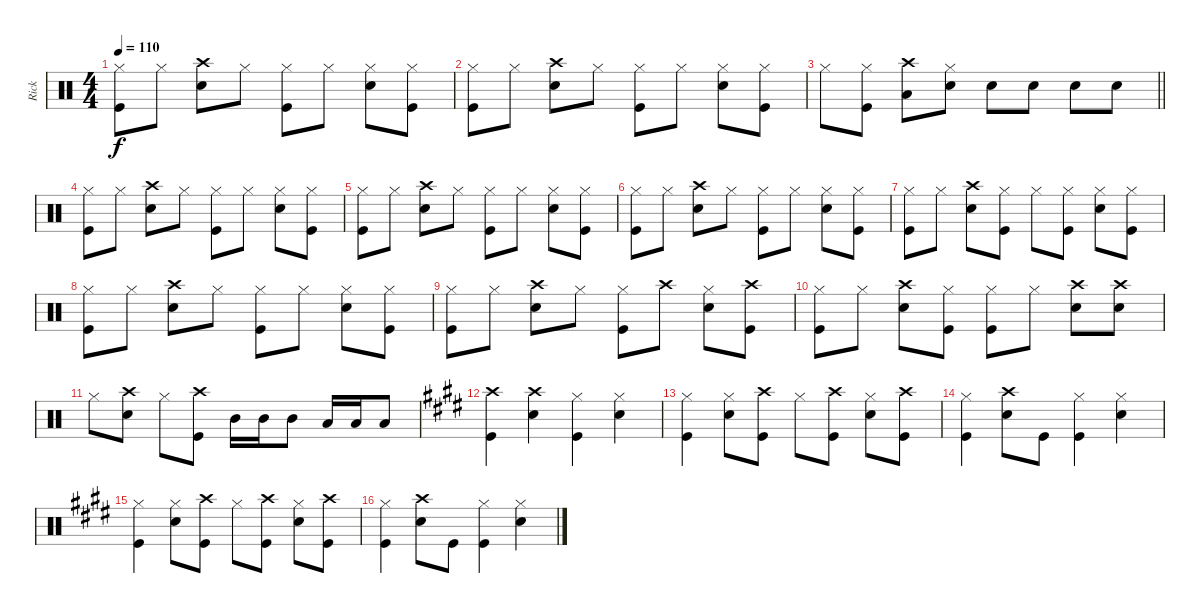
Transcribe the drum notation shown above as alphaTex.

\track ("Rick" "Rick") {instrument percussion}
\staff {score}
\articulation defaults
\ts (4 4)
\tempo 110
\clef neutral
\ks c
("Hi-Hat (closed)" "Kick (hit)").8{dy f} "Hi-Hat (closed)".8 ("Crash high (hit)" "Snare (hit) 2").8 "Hi-Hat (closed)".8 ("Hi-Hat (closed)" "Kick (hit)").8 "Hi-Hat (closed)".8 ("Hi-Hat (closed)" "Snare (hit) 2").8 ("Hi-Hat (closed)" "Kick (hit)").8 |
("Hi-Hat (closed)" "Kick (hit)").8 "Hi-Hat (closed)".8 ("Crash high (hit)" "Snare (hit) 2").8 "Hi-Hat (closed)".8 ("Hi-Hat (closed)" "Kick (hit)").8 "Hi-Hat (closed)".8 ("Hi-Hat (closed)" "Snare (hit) 2").8 ("Hi-Hat (closed)" "Kick (hit)").8 |
\barLineRight lightlight "Hi-Hat (closed)".8
("Hi-Hat (closed)" "Kick (hit)").8 ("Crash high (hit)" "Low Tom (hit)").8 ("Hi-Hat (closed)" "Snare (hit) 2").8 "Snare (hit) 2".8 "Snare (hit) 2".8 "Snare (hit) 2".8 "Snare (hit) 2".8 |
("Hi-Hat (closed)" "Kick (hit)").8 "Hi-Hat (closed)".8 ("Crash high (hit)" "Snare (hit) 2").8 "Hi-Hat (closed)".8 ("Hi-Hat (closed)" "Kick (hit)").8 "Hi-Hat (closed)".8 ("Hi-Hat (closed)" "Snare (hit) 2").8 ("Hi-Hat (closed)" "Kick (hit)").8 |
("Hi-Hat (closed)" "Kick (hit)").8 "Hi-Hat (closed)".8 ("Crash high (hit)" "Snare (hit) 2").8 "Hi-Hat (closed)".8 ("Hi-Hat (closed)" "Kick (hit)").8 "Hi-Hat (closed)".8 ("Hi-Hat (closed)" "Snare (hit) 2").8 ("Hi-Hat (closed)" "Kick (hit)").8 |
("Hi-Hat (closed)" "Kick (hit)").8 "Hi-Hat (closed)".8 ("Crash high (hit)" "Snare (hit) 2").8 "Hi-Hat (closed)".8 ("Hi-Hat (closed)" "Kick (hit)").8 "Hi-Hat (closed)".8 ("Hi-Hat (closed)" "Snare (hit) 2").8 ("Hi-Hat (closed)" "Kick (hit)").8 |
("Hi-Hat (closed)" "Kick (hit)").8 "Hi-Hat (closed)".8 ("Crash high (hit)" "Snare (hit) 2").8 ("Hi-Hat (closed)" "Kick (hit)").8 "Hi-Hat (closed)".8 ("Hi-Hat (closed)" "Kick (hit)").8 ("Hi-Hat (closed)" "Snare (hit) 2").8 ("Hi-Hat (closed)" "Kick (hit)").8 |
("Hi-Hat (closed)" "Kick (hit)").8 "Hi-Hat (closed)".8 ("Crash high (hit)" "Snare (hit) 2").8 "Hi-Hat (closed)".8 ("Hi-Hat (closed)" "Kick (hit)").8 "Hi-Hat (closed)".8 ("Hi-Hat (closed)" "Snare (hit) 2").8 ("Hi-Hat (closed)" "Kick (hit)").8 |
("Hi-Hat (closed)" "Kick (hit)").8 "Hi-Hat (closed)".8 ("Crash high (hit)" "Snare (hit) 2").8 "Hi-Hat (closed)".8 ("Hi-Hat (closed)" "Kick (hit)").8 "Crash high (hit)".8 ("Hi-Hat (closed)" "Snare (hit) 2").8 ("Crash high (hit)" "Kick (hit)").8 |
("Hi-Hat (closed)" "Kick (hit)").8 "Hi-Hat (closed)".8 ("Crash high (hit)" "Snare (hit) 2").8 ("Hi-Hat (closed)" "Kick (hit)").8 ("Hi-Hat (closed)" "Kick (hit)").8 "Hi-Hat (closed)".8 ("Crash high (hit)" "Snare (hit) 2").8 ("Crash high (hit)" "Snare (hit) 2").8 |
"Hi-Hat (closed)".8 ("Crash high (hit)" "Snare (hit) 2").8 "Hi-Hat (closed)".8 ("Crash high (hit)" "Kick (hit)").8 "Mid Tom (hit)".16 "Mid Tom (hit)".16 "Mid Tom (hit)".8 "Low Tom (hit)".16 "Low Tom (hit)".16 "Low Tom (hit)".8 |
\ks e
("Crash high (hit)" "Kick (hit)").4 ("Crash high (hit)" "Snare (hit) 2").4 ("Hi-Hat (closed)" "Kick (hit)").4 ("Hi-Hat (closed)" "Snare (hit) 2").4 |
("Hi-Hat (closed)" "Kick (hit)").4 ("Hi-Hat (closed)" "Snare (hit) 2").8 ("Crash high (hit)" "Kick (hit)").8 "Hi-Hat (closed)".8 ("Crash high (hit)" "Kick (hit)").8 ("Hi-Hat (closed)" "Snare (hit) 2").8 ("Crash high (hit)" "Kick (hit)").8 |
("Hi-Hat (closed)" "Kick (hit)").4 ("Crash high (hit)" "Snare (hit) 2").8 "Kick (hit)".8 ("Hi-Hat (closed)" "Kick (hit)").4 ("Hi-Hat (closed)" "Snare (hit) 2").4 |
("Hi-Hat (closed)" "Kick (hit)").4 ("Hi-Hat (closed)" "Snare (hit) 2").8 ("Crash high (hit)" "Kick (hit)").8 "Hi-Hat (closed)".8 ("Crash high (hit)" "Kick (hit)").8 ("Hi-Hat (closed)" "Snare (hit) 2").8 ("Crash high (hit)" "Kick (hit)").8 |
("Hi-Hat (closed)" "Kick (hit)").4 ("Crash high (hit)" "Snare (hit) 2").8 "Kick (hit)".8 ("Hi-Hat (closed)" "Kick (hit)").4 ("Hi-Hat (closed)" "Snare (hit) 2").4
